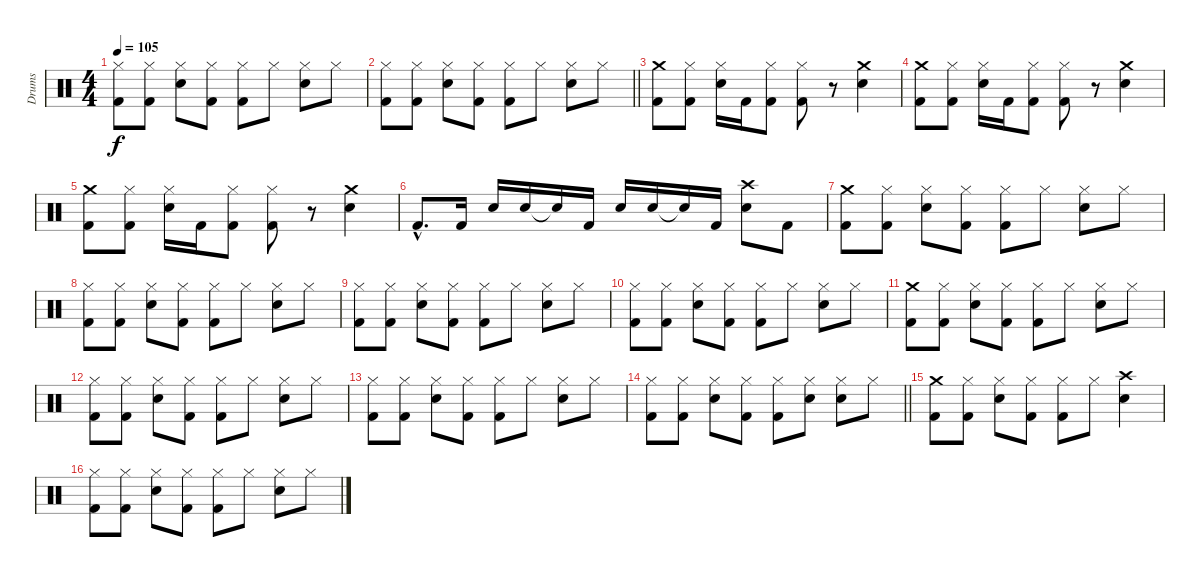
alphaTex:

\track ("Drums" "Drums") {instrument percussion}
\staff {score}
\articulation defaults
\ts (4 4)
\tempo 105
\clef neutral
\ks c
("Kick (hit) 2" "Hi-Hat (closed)").8{dy f} ("Kick (hit) 2" "Hi-Hat (closed)").8 ("Snare (hit) 2" "Hi-Hat (closed)").8 ("Kick (hit) 2" "Hi-Hat (closed)").8 ("Kick (hit) 2" "Hi-Hat (closed)").8 "Hi-Hat (closed)".8 ("Snare (hit) 2" "Hi-Hat (closed)").8 "Hi-Hat (closed)".8 |
\barLineRight lightlight
("Kick (hit) 2" "Hi-Hat (closed)").8 ("Kick (hit) 2" "Hi-Hat (closed)").8 ("Snare (hit) 2" "Hi-Hat (closed)").8 ("Kick (hit) 2" "Hi-Hat (closed)").8 ("Kick (hit) 2" "Hi-Hat (closed)").8 "Hi-Hat (closed)".8 ("Snare (hit) 2" "Hi-Hat (closed)").8 "Hi-Hat (closed)".8 |
("Kick (hit) 2" "Crash medium (hit)").8 ("Kick (hit) 2" "Hi-Hat (closed)").8 ("Snare (hit) 2" "Hi-Hat (closed)").16 "Kick (hit) 2".16 ("Kick (hit) 2" "Hi-Hat (closed)").8 ("Kick (hit) 2" "Hi-Hat (closed)").8 r.8 ("Snare (hit) 2" "Crash medium (hit)").4 |
("Kick (hit) 2" "Crash medium (hit)").8 ("Kick (hit) 2" "Hi-Hat (closed)").8 ("Snare (hit) 2" "Hi-Hat (closed)").16 "Kick (hit) 2".16 ("Kick (hit) 2" "Hi-Hat (closed)").8 ("Kick (hit) 2" "Hi-Hat (closed)").8 r.8 ("Snare (hit) 2" "Crash medium (hit)").4 |
("Kick (hit) 2" "Crash medium (hit)").8 ("Kick (hit) 2" "Hi-Hat (closed)").8 ("Snare (hit) 2" "Hi-Hat (closed)").16 "Kick (hit) 2".16 ("Kick (hit) 2" "Hi-Hat (closed)").8 ("Kick (hit) 2" "Hi-Hat (closed)").8 r.8 ("Snare (hit) 2" "Crash medium (hit)").4 |
"Kick (hit) 2"{hac}.8{d} "Kick (hit) 2".16 "Snare (hit) 2".16 "Snare (hit) 2".16 "Snare (hit)"{t}.16 "Kick (hit) 2".16 "Snare (hit) 2".16 "Snare (hit) 2".16 "Snare (hit)"{t}.16 "Kick (hit) 2".16 ("Snare (hit) 2" "Crash high (hit)").8 "Kick (hit) 2".8 |
("Kick (hit) 2" "Crash medium (hit)").8 ("Kick (hit) 2" "Hi-Hat (closed)").8 ("Snare (hit) 2" "Hi-Hat (closed)").8 ("Kick (hit) 2" "Hi-Hat (closed)").8 ("Kick (hit) 2" "Hi-Hat (closed)").8 "Hi-Hat (closed)".8 ("Snare (hit) 2" "Hi-Hat (closed)").8 "Hi-Hat (closed)".8 |
("Kick (hit) 2" "Hi-Hat (closed)").8 ("Kick (hit) 2" "Hi-Hat (closed)").8 ("Snare (hit) 2" "Hi-Hat (closed)").8 ("Kick (hit) 2" "Hi-Hat (closed)").8 ("Kick (hit) 2" "Hi-Hat (closed)").8 "Hi-Hat (closed)".8 ("Snare (hit) 2" "Hi-Hat (closed)").8 "Hi-Hat (closed)".8 |
("Kick (hit) 2" "Hi-Hat (closed)").8 ("Kick (hit) 2" "Hi-Hat (closed)").8 ("Snare (hit) 2" "Hi-Hat (closed)").8 ("Kick (hit) 2" "Hi-Hat (closed)").8 ("Kick (hit) 2" "Hi-Hat (closed)").8 "Hi-Hat (closed)".8 ("Snare (hit) 2" "Hi-Hat (closed)").8 "Hi-Hat (closed)".8 |
("Kick (hit) 2" "Hi-Hat (closed)").8 ("Kick (hit) 2" "Hi-Hat (closed)").8 ("Snare (hit) 2" "Hi-Hat (closed)").8 ("Kick (hit) 2" "Hi-Hat (closed)").8 ("Kick (hit) 2" "Hi-Hat (closed)").8 "Hi-Hat (closed)".8 ("Snare (hit) 2" "Hi-Hat (closed)").8 "Hi-Hat (closed)".8 |
("Kick (hit) 2" "Crash medium (hit)").8 ("Kick (hit) 2" "Hi-Hat (closed)").8 ("Snare (hit) 2" "Hi-Hat (closed)").8 ("Kick (hit) 2" "Hi-Hat (closed)").8 ("Kick (hit) 2" "Hi-Hat (closed)").8 "Hi-Hat (closed)".8 ("Snare (hit) 2" "Hi-Hat (closed)").8 "Hi-Hat (closed)".8 |
("Kick (hit) 2" "Hi-Hat (closed)").8 ("Kick (hit) 2" "Hi-Hat (closed)").8 ("Snare (hit) 2" "Hi-Hat (closed)").8 ("Kick (hit) 2" "Hi-Hat (closed)").8 ("Kick (hit) 2" "Hi-Hat (closed)").8 "Hi-Hat (closed)".8 ("Snare (hit) 2" "Hi-Hat (closed)").8 "Hi-Hat (closed)".8 |
("Kick (hit) 2" "Hi-Hat (closed)").8 ("Kick (hit) 2" "Hi-Hat (closed)").8 ("Snare (hit) 2" "Hi-Hat (closed)").8 ("Kick (hit) 2" "Hi-Hat (closed)").8 ("Kick (hit) 2" "Hi-Hat (closed)").8 "Hi-Hat (closed)".8 ("Snare (hit) 2" "Hi-Hat (closed)").8 "Hi-Hat (closed)".8 |
\barLineRight lightlight
("Kick (hit) 2" "Hi-Hat (closed)").8 ("Kick (hit) 2" "Hi-Hat (closed)").8 ("Snare (hit) 2" "Hi-Hat (closed)").8 ("Kick (hit) 2" "Hi-Hat (closed)").8 ("Kick (hit) 2" "Hi-Hat (closed)").8 ("Snare (hit) 2" "Hi-Hat (closed)").8 ("Snare (hit) 2" "Hi-Hat (closed)").8 "Hi-Hat (closed)".8 |
("Kick (hit) 2" "Crash medium (hit)").8 ("Kick (hit) 2" "Hi-Hat (closed)").8 ("Snare (hit) 2" "Hi-Hat (closed)").8 ("Kick (hit) 2" "Hi-Hat (closed)").8 ("Kick (hit) 2" "Hi-Hat (closed)").8 "Hi-Hat (closed)".8 ("Snare (hit) 2" "Crash high (hit)").4 |
("Kick (hit) 2" "Hi-Hat (closed)").8 ("Kick (hit) 2" "Hi-Hat (closed)").8 ("Snare (hit) 2" "Hi-Hat (closed)").8 ("Kick (hit) 2" "Hi-Hat (closed)").8 ("Kick (hit) 2" "Hi-Hat (closed)").8 "Hi-Hat (closed)".8 ("Snare (hit) 2" "Hi-Hat (closed)").8 "Hi-Hat (closed)".8
